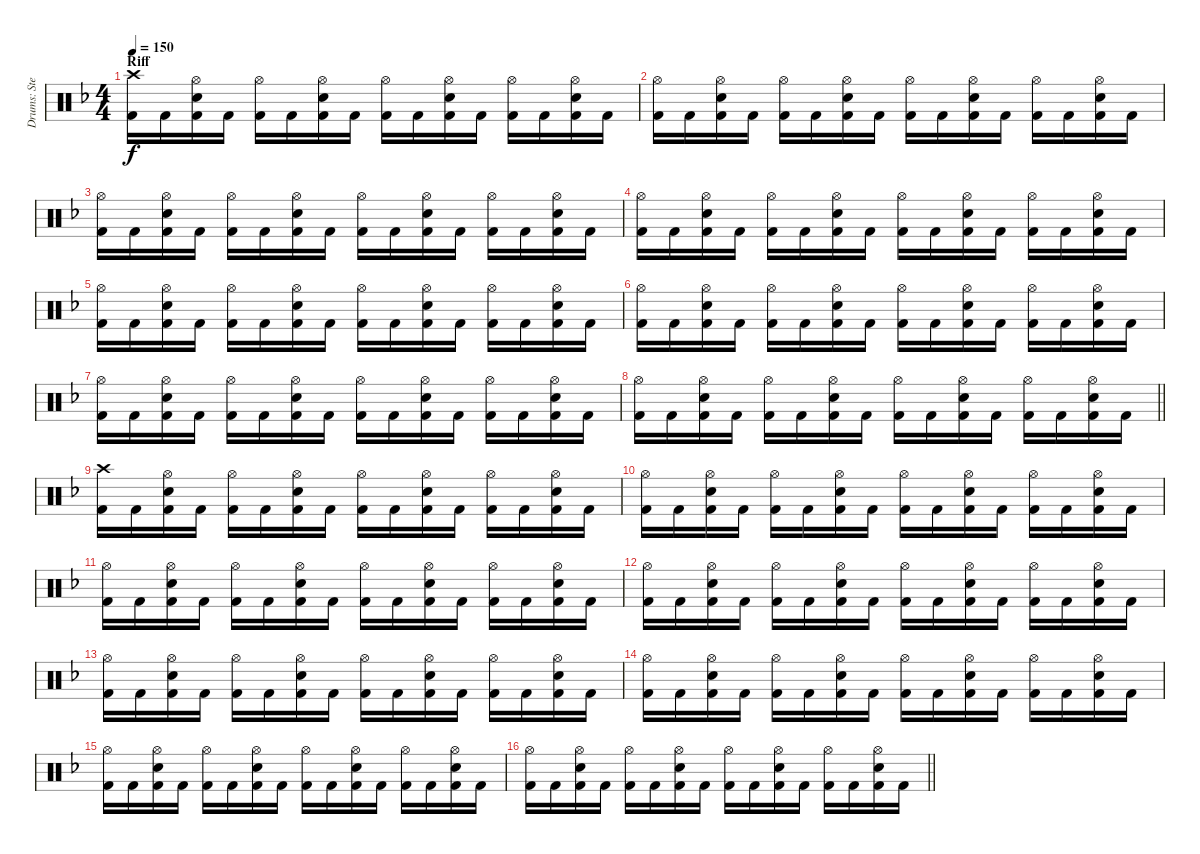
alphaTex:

\track ("Drums: Stefan Svantesson" "Drums: Ste") {instrument percussion}
\staff {score}
\articulation defaults
\ts (4 4)
\section ("" "Riff")
\tempo 150
\clef neutral
\ks dminor
("Crash high (hit)" "Kick (hit) 2").16{dy f} "Kick (hit) 2".16 ("Hi-Hat (open)" "Electric Snare (hit)" "Kick (hit) 2").16 "Kick (hit) 2".16 ("Hi-Hat (open)" "Kick (hit) 2").16 "Kick (hit) 2".16 ("Hi-Hat (open)" "Electric Snare (hit)" "Kick (hit) 2").16 "Kick (hit) 2".16 ("Hi-Hat (open)" "Kick (hit) 2").16 "Kick (hit) 2".16 ("Hi-Hat (open)" "Electric Snare (hit)" "Kick (hit) 2").16 "Kick (hit) 2".16 ("Hi-Hat (open)" "Kick (hit) 2").16 "Kick (hit) 2".16 ("Hi-Hat (open)" "Electric Snare (hit)" "Kick (hit) 2").16 "Kick (hit) 2".16 |
("Hi-Hat (open)" "Kick (hit) 2").16 "Kick (hit) 2".16 ("Hi-Hat (open)" "Electric Snare (hit)" "Kick (hit) 2").16 "Kick (hit) 2".16 ("Hi-Hat (open)" "Kick (hit) 2").16 "Kick (hit) 2".16 ("Hi-Hat (open)" "Electric Snare (hit)" "Kick (hit) 2").16 "Kick (hit) 2".16 ("Hi-Hat (open)" "Kick (hit) 2").16 "Kick (hit) 2".16 ("Hi-Hat (open)" "Electric Snare (hit)" "Kick (hit) 2").16 "Kick (hit) 2".16 ("Hi-Hat (open)" "Kick (hit) 2").16 "Kick (hit) 2".16 ("Hi-Hat (open)" "Electric Snare (hit)" "Kick (hit) 2").16 "Kick (hit) 2".16 |
("Hi-Hat (open)" "Kick (hit) 2").16 "Kick (hit) 2".16 ("Hi-Hat (open)" "Electric Snare (hit)" "Kick (hit) 2").16 "Kick (hit) 2".16 ("Hi-Hat (open)" "Kick (hit) 2").16 "Kick (hit) 2".16 ("Hi-Hat (open)" "Electric Snare (hit)" "Kick (hit) 2").16 "Kick (hit) 2".16 ("Hi-Hat (open)" "Kick (hit) 2").16 "Kick (hit) 2".16 ("Hi-Hat (open)" "Electric Snare (hit)" "Kick (hit) 2").16 "Kick (hit) 2".16 ("Hi-Hat (open)" "Kick (hit) 2").16 "Kick (hit) 2".16 ("Hi-Hat (open)" "Electric Snare (hit)" "Kick (hit) 2").16 "Kick (hit) 2".16 |
("Hi-Hat (open)" "Kick (hit) 2").16 "Kick (hit) 2".16 ("Hi-Hat (open)" "Electric Snare (hit)" "Kick (hit) 2").16 "Kick (hit) 2".16 ("Hi-Hat (open)" "Kick (hit) 2").16 "Kick (hit) 2".16 ("Hi-Hat (open)" "Electric Snare (hit)" "Kick (hit) 2").16 "Kick (hit) 2".16 ("Hi-Hat (open)" "Kick (hit) 2").16 "Kick (hit) 2".16 ("Hi-Hat (open)" "Electric Snare (hit)" "Kick (hit) 2").16 "Kick (hit) 2".16 ("Hi-Hat (open)" "Kick (hit) 2").16 "Kick (hit) 2".16 ("Hi-Hat (open)" "Electric Snare (hit)" "Kick (hit) 2").16 "Kick (hit) 2".16 |
("Hi-Hat (open)" "Kick (hit) 2").16 "Kick (hit) 2".16 ("Hi-Hat (open)" "Electric Snare (hit)" "Kick (hit) 2").16 "Kick (hit) 2".16 ("Hi-Hat (open)" "Kick (hit) 2").16 "Kick (hit) 2".16 ("Hi-Hat (open)" "Electric Snare (hit)" "Kick (hit) 2").16 "Kick (hit) 2".16 ("Hi-Hat (open)" "Kick (hit) 2").16 "Kick (hit) 2".16 ("Hi-Hat (open)" "Electric Snare (hit)" "Kick (hit) 2").16 "Kick (hit) 2".16 ("Hi-Hat (open)" "Kick (hit) 2").16 "Kick (hit) 2".16 ("Hi-Hat (open)" "Electric Snare (hit)" "Kick (hit) 2").16 "Kick (hit) 2".16 |
("Hi-Hat (open)" "Kick (hit) 2").16 "Kick (hit) 2".16 ("Hi-Hat (open)" "Electric Snare (hit)" "Kick (hit) 2").16 "Kick (hit) 2".16 ("Hi-Hat (open)" "Kick (hit) 2").16 "Kick (hit) 2".16 ("Hi-Hat (open)" "Electric Snare (hit)" "Kick (hit) 2").16 "Kick (hit) 2".16 ("Hi-Hat (open)" "Kick (hit) 2").16 "Kick (hit) 2".16 ("Hi-Hat (open)" "Electric Snare (hit)" "Kick (hit) 2").16 "Kick (hit) 2".16 ("Hi-Hat (open)" "Kick (hit) 2").16 "Kick (hit) 2".16 ("Hi-Hat (open)" "Electric Snare (hit)" "Kick (hit) 2").16 "Kick (hit) 2".16 |
("Hi-Hat (open)" "Kick (hit) 2").16 "Kick (hit) 2".16 ("Hi-Hat (open)" "Electric Snare (hit)" "Kick (hit) 2").16 "Kick (hit) 2".16 ("Hi-Hat (open)" "Kick (hit) 2").16 "Kick (hit) 2".16 ("Hi-Hat (open)" "Electric Snare (hit)" "Kick (hit) 2").16 "Kick (hit) 2".16 ("Hi-Hat (open)" "Kick (hit) 2").16 "Kick (hit) 2".16 ("Hi-Hat (open)" "Electric Snare (hit)" "Kick (hit) 2").16 "Kick (hit) 2".16 ("Hi-Hat (open)" "Kick (hit) 2").16 "Kick (hit) 2".16 ("Hi-Hat (open)" "Electric Snare (hit)" "Kick (hit) 2").16 "Kick (hit) 2".16 |
\barLineRight lightlight
("Hi-Hat (open)" "Kick (hit) 2").16 "Kick (hit) 2".16 ("Hi-Hat (open)" "Electric Snare (hit)" "Kick (hit) 2").16 "Kick (hit) 2".16 ("Hi-Hat (open)" "Kick (hit) 2").16 "Kick (hit) 2".16 ("Hi-Hat (open)" "Electric Snare (hit)" "Kick (hit) 2").16 "Kick (hit) 2".16 ("Hi-Hat (open)" "Kick (hit) 2").16 "Kick (hit) 2".16 ("Hi-Hat (open)" "Electric Snare (hit)" "Kick (hit) 2").16 "Kick (hit) 2".16 ("Hi-Hat (open)" "Kick (hit) 2").16 "Kick (hit) 2".16 ("Hi-Hat (open)" "Electric Snare (hit)" "Kick (hit) 2").16 "Kick (hit) 2".16 |
("Crash high (hit)" "Kick (hit) 2").16 "Kick (hit) 2".16 ("Hi-Hat (open)" "Electric Snare (hit)" "Kick (hit) 2").16 "Kick (hit) 2".16 ("Hi-Hat (open)" "Kick (hit) 2").16 "Kick (hit) 2".16 ("Hi-Hat (open)" "Electric Snare (hit)" "Kick (hit) 2").16 "Kick (hit) 2".16 ("Hi-Hat (open)" "Kick (hit) 2").16 "Kick (hit) 2".16 ("Hi-Hat (open)" "Electric Snare (hit)" "Kick (hit) 2").16 "Kick (hit) 2".16 ("Hi-Hat (open)" "Kick (hit) 2").16 "Kick (hit) 2".16 ("Hi-Hat (open)" "Electric Snare (hit)" "Kick (hit) 2").16 "Kick (hit) 2".16 |
("Hi-Hat (open)" "Kick (hit) 2").16 "Kick (hit) 2".16 ("Hi-Hat (open)" "Electric Snare (hit)" "Kick (hit) 2").16 "Kick (hit) 2".16 ("Hi-Hat (open)" "Kick (hit) 2").16 "Kick (hit) 2".16 ("Hi-Hat (open)" "Electric Snare (hit)" "Kick (hit) 2").16 "Kick (hit) 2".16 ("Hi-Hat (open)" "Kick (hit) 2").16 "Kick (hit) 2".16 ("Hi-Hat (open)" "Electric Snare (hit)" "Kick (hit) 2").16 "Kick (hit) 2".16 ("Hi-Hat (open)" "Kick (hit) 2").16 "Kick (hit) 2".16 ("Hi-Hat (open)" "Electric Snare (hit)" "Kick (hit) 2").16 "Kick (hit) 2".16 |
("Hi-Hat (open)" "Kick (hit) 2").16 "Kick (hit) 2".16 ("Hi-Hat (open)" "Electric Snare (hit)" "Kick (hit) 2").16 "Kick (hit) 2".16 ("Hi-Hat (open)" "Kick (hit) 2").16 "Kick (hit) 2".16 ("Hi-Hat (open)" "Electric Snare (hit)" "Kick (hit) 2").16 "Kick (hit) 2".16 ("Hi-Hat (open)" "Kick (hit) 2").16 "Kick (hit) 2".16 ("Hi-Hat (open)" "Electric Snare (hit)" "Kick (hit) 2").16 "Kick (hit) 2".16 ("Hi-Hat (open)" "Kick (hit) 2").16 "Kick (hit) 2".16 ("Hi-Hat (open)" "Electric Snare (hit)" "Kick (hit) 2").16 "Kick (hit) 2".16 |
("Hi-Hat (open)" "Kick (hit) 2").16 "Kick (hit) 2".16 ("Hi-Hat (open)" "Electric Snare (hit)" "Kick (hit) 2").16 "Kick (hit) 2".16 ("Hi-Hat (open)" "Kick (hit) 2").16 "Kick (hit) 2".16 ("Hi-Hat (open)" "Electric Snare (hit)" "Kick (hit) 2").16 "Kick (hit) 2".16 ("Hi-Hat (open)" "Kick (hit) 2").16 "Kick (hit) 2".16 ("Hi-Hat (open)" "Electric Snare (hit)" "Kick (hit) 2").16 "Kick (hit) 2".16 ("Hi-Hat (open)" "Kick (hit) 2").16 "Kick (hit) 2".16 ("Hi-Hat (open)" "Electric Snare (hit)" "Kick (hit) 2").16 "Kick (hit) 2".16 |
("Hi-Hat (open)" "Kick (hit) 2").16 "Kick (hit) 2".16 ("Hi-Hat (open)" "Electric Snare (hit)" "Kick (hit) 2").16 "Kick (hit) 2".16 ("Hi-Hat (open)" "Kick (hit) 2").16 "Kick (hit) 2".16 ("Hi-Hat (open)" "Electric Snare (hit)" "Kick (hit) 2").16 "Kick (hit) 2".16 ("Hi-Hat (open)" "Kick (hit) 2").16 "Kick (hit) 2".16 ("Hi-Hat (open)" "Electric Snare (hit)" "Kick (hit) 2").16 "Kick (hit) 2".16 ("Hi-Hat (open)" "Kick (hit) 2").16 "Kick (hit) 2".16 ("Hi-Hat (open)" "Electric Snare (hit)" "Kick (hit) 2").16 "Kick (hit) 2".16 |
("Hi-Hat (open)" "Kick (hit) 2").16 "Kick (hit) 2".16 ("Hi-Hat (open)" "Electric Snare (hit)" "Kick (hit) 2").16 "Kick (hit) 2".16 ("Hi-Hat (open)" "Kick (hit) 2").16 "Kick (hit) 2".16 ("Hi-Hat (open)" "Electric Snare (hit)" "Kick (hit) 2").16 "Kick (hit) 2".16 ("Hi-Hat (open)" "Kick (hit) 2").16 "Kick (hit) 2".16 ("Hi-Hat (open)" "Electric Snare (hit)" "Kick (hit) 2").16 "Kick (hit) 2".16 ("Hi-Hat (open)" "Kick (hit) 2").16 "Kick (hit) 2".16 ("Hi-Hat (open)" "Electric Snare (hit)" "Kick (hit) 2").16 "Kick (hit) 2".16 |
("Hi-Hat (open)" "Kick (hit) 2").16 "Kick (hit) 2".16 ("Hi-Hat (open)" "Electric Snare (hit)" "Kick (hit) 2").16 "Kick (hit) 2".16 ("Hi-Hat (open)" "Kick (hit) 2").16 "Kick (hit) 2".16 ("Hi-Hat (open)" "Electric Snare (hit)" "Kick (hit) 2").16 "Kick (hit) 2".16 ("Hi-Hat (open)" "Kick (hit) 2").16 "Kick (hit) 2".16 ("Hi-Hat (open)" "Electric Snare (hit)" "Kick (hit) 2").16 "Kick (hit) 2".16 ("Hi-Hat (open)" "Kick (hit) 2").16 "Kick (hit) 2".16 ("Hi-Hat (open)" "Electric Snare (hit)" "Kick (hit) 2").16 "Kick (hit) 2".16 |
\barLineRight lightlight
("Hi-Hat (open)" "Kick (hit) 2").16 "Kick (hit) 2".16 ("Hi-Hat (open)" "Electric Snare (hit)" "Kick (hit) 2").16 "Kick (hit) 2".16 ("Hi-Hat (open)" "Kick (hit) 2").16 "Kick (hit) 2".16 ("Hi-Hat (open)" "Electric Snare (hit)" "Kick (hit) 2").16 "Kick (hit) 2".16 ("Hi-Hat (open)" "Kick (hit) 2").16 "Kick (hit) 2".16 ("Hi-Hat (open)" "Electric Snare (hit)" "Kick (hit) 2").16 "Kick (hit) 2".16 ("Hi-Hat (open)" "Kick (hit) 2").16 "Kick (hit) 2".16 ("Hi-Hat (open)" "Electric Snare (hit)" "Kick (hit) 2").16 "Kick (hit) 2".16
